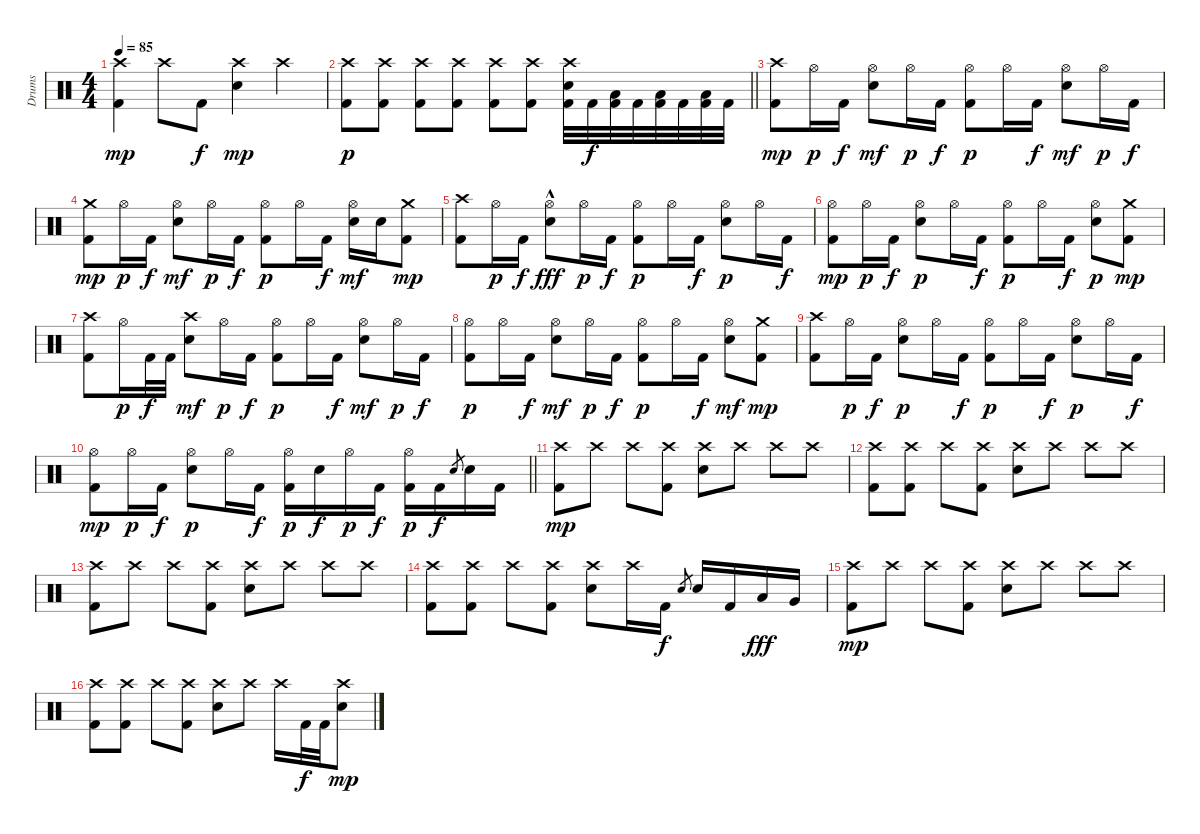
\track ("Drums" "Drums") {instrument percussion}
\staff {score}
\articulation defaults
\ts (4 4)
\tempo 85
\clef neutral
\ks c
("Crash high (hit)" "Kick (hit) 2").4{dy mp} "Crash high (hit)".8 "Kick (hit) 2".8{dy f} ("Crash high (hit)" "Electric Snare (hit)").4{dy mp} "Crash high (hit)".4 |
\barLineRight lightlight
("Crash high (hit)" "Kick (hit) 2").8{dy p} ("Crash high (hit)" "Kick (hit) 2").8 ("Crash high (hit)" "Kick (hit) 2").8 ("Crash high (hit)" "Kick (hit) 2").8 ("Crash high (hit)" "Kick (hit) 2").8 ("Crash high (hit)" "Kick (hit) 2").8 ("Crash high (hit)" "Electric Snare (hit)" "Kick (hit) 2").32 "Kick (hit) 2".32{dy f} ("Low Tom (hit)" "Kick (hit) 2").32 "Kick (hit) 2".32 ("Low Tom (hit)" "Kick (hit) 2").32 "Kick (hit) 2".32 ("Low Tom (hit)" "Kick (hit) 2").32 "Kick (hit) 2".32 |
("Crash high (hit)" "Kick (hit) 2").8{dy mp} "Hi-Hat (open)".16{dy p} "Kick (hit) 2".16{dy f} ("Hi-Hat (open)" "Electric Snare (hit)").8{dy mf} "Hi-Hat (open)".16{dy p} "Kick (hit) 2".16{dy f} ("Hi-Hat (open)" "Kick (hit) 2").8{dy p} "Hi-Hat (open)".16 "Kick (hit) 2".16{dy f} ("Hi-Hat (open)" "Electric Snare (hit)").8{dy mf} "Hi-Hat (open)".16{dy p} "Kick (hit) 2".16{dy f} |
("Crash medium (hit)" "Kick (hit) 2").8{dy mp} "Hi-Hat (open)".16{dy p} "Kick (hit) 2".16{dy f} ("Hi-Hat (open)" "Electric Snare (hit)").8{dy mf} "Hi-Hat (open)".16{dy p} "Kick (hit) 2".16{dy f} ("Hi-Hat (open)" "Kick (hit) 2").8{dy p} "Hi-Hat (open)".16 "Kick (hit) 2".16{dy f} ("Hi-Hat (open)" "Electric Snare (hit)").16{dy mf} "Electric Snare (hit)".16 ("Crash medium (hit)" "Kick (hit) 2").8{dy mp} |
("Crash high (hit)" "Kick (hit) 2").8 "Hi-Hat (open)".16{dy p} "Kick (hit) 2".16{dy f} ("Hi-Hat (open)" "Electric Snare (hit)"{hac}).8{dy fff} "Hi-Hat (open)".16{dy p} "Kick (hit) 2".16{dy f} ("Hi-Hat (open)" "Kick (hit) 2").8{dy p} "Hi-Hat (open)".16 "Kick (hit) 2".16{dy f} ("Hi-Hat (open)" "Electric Snare (hit)").8{dy p} "Hi-Hat (open)".16 "Kick (hit) 2".16{dy f} |
("Hi-Hat (open)" "Kick (hit) 2").8{dy mp} "Hi-Hat (open)".16{dy p} "Kick (hit) 2".16{dy f} ("Hi-Hat (open)" "Electric Snare (hit)").8{dy p} "Hi-Hat (open)".16 "Kick (hit) 2".16{dy f} ("Hi-Hat (open)" "Kick (hit) 2").8{dy p} "Hi-Hat (open)".16 "Kick (hit) 2".16{dy f} ("Hi-Hat (open)" "Electric Snare (hit)").8{dy p} ("Crash medium (hit)" "Kick (hit) 2").8{dy mp} |
("Crash high (hit)" "Kick (hit) 2").8 "Hi-Hat (open)".16{dy p} "Kick (hit) 2".32{dy f} "Kick (hit) 2".32 ("Crash high (hit)" "Electric Snare (hit)").8{dy mf} "Hi-Hat (open)".16{dy p} "Kick (hit) 2".16{dy f} ("Hi-Hat (open)" "Kick (hit) 2").8{dy p} "Hi-Hat (open)".16 "Kick (hit) 2".16{dy f} ("Hi-Hat (open)" "Electric Snare (hit)").8{dy mf} "Hi-Hat (open)".16{dy p} "Kick (hit) 2".16{dy f} |
("Hi-Hat (open)" "Kick (hit) 2").8{dy p} "Hi-Hat (open)".16 "Kick (hit) 2".16{dy f} ("Hi-Hat (open)" "Electric Snare (hit)").8{dy mf} "Hi-Hat (open)".16{dy p} "Kick (hit) 2".16{dy f} ("Hi-Hat (open)" "Kick (hit) 2").8{dy p} "Hi-Hat (open)".16 "Kick (hit) 2".16{dy f} ("Hi-Hat (open)" "Electric Snare (hit)").8{dy mf} ("Crash medium (hit)" "Kick (hit) 2").8{dy mp} |
("Crash high (hit)" "Kick (hit) 2").8 "Hi-Hat (open)".16{dy p} "Kick (hit) 2".16{dy f} ("Hi-Hat (open)" "Electric Snare (hit)").8{dy p} "Hi-Hat (open)".16 "Kick (hit) 2".16{dy f} ("Hi-Hat (open)" "Kick (hit) 2").8{dy p} "Hi-Hat (open)".16 "Kick (hit) 2".16{dy f} ("Hi-Hat (open)" "Electric Snare (hit)").8{dy p} "Hi-Hat (open)".16 "Kick (hit) 2".16{dy f} |
\barLineRight lightlight
("Hi-Hat (open)" "Kick (hit) 2").8{dy mp} "Hi-Hat (open)".16{dy p} "Kick (hit) 2".16{dy f} ("Hi-Hat (open)" "Electric Snare (hit)").8{dy p} "Hi-Hat (open)".16 "Kick (hit) 2".16{dy f} ("Hi-Hat (open)" "Kick (hit) 2").16{dy p} "Electric Snare (hit)".16{dy f} "Hi-Hat (open)".16{dy p} "Kick (hit) 2".16{dy f} ("Hi-Hat (open)" "Kick (hit) 2").16{dy p} "Kick (hit) 2".16{dy f} "Electric Snare (hit)".8{gr} "Electric Snare (hit)".16 "Kick (hit) 2".16 |
("Crash high (hit)" "Kick (hit) 2").8{dy mp} "Crash high (hit)".8 "Crash high (hit)".8 ("Crash high (hit)" "Kick (hit) 2").8 ("Crash high (hit)" "Electric Snare (hit)").8 "Crash high (hit)".8 "Crash high (hit)".8 "Crash high (hit)".8 |
("Crash high (hit)" "Kick (hit) 2").8 ("Crash high (hit)" "Kick (hit) 2").8 "Crash high (hit)".8 ("Crash high (hit)" "Kick (hit) 2").8 ("Crash high (hit)" "Electric Snare (hit)").8 "Crash high (hit)".8 "Crash high (hit)".8 "Crash high (hit)".8 |
("Crash high (hit)" "Kick (hit) 2").8 "Crash high (hit)".8 "Crash high (hit)".8 ("Crash high (hit)" "Kick (hit) 2").8 ("Crash high (hit)" "Electric Snare (hit)").8 "Crash high (hit)".8 "Crash high (hit)".8 "Crash high (hit)".8 |
("Crash high (hit)" "Kick (hit) 2").8 ("Crash high (hit)" "Kick (hit) 2").8 "Crash high (hit)".8 ("Crash high (hit)" "Kick (hit) 2").8 ("Crash high (hit)" "Electric Snare (hit)").8 "Crash high (hit)".16 "Kick (hit) 2".16{dy f} "Electric Snare (hit)".8{gr} "Electric Snare (hit)".16 "Kick (hit) 2".16 "Low Tom (hit)".16{dy fff} "Very Low Tom (hit)".16 |
("Crash high (hit)" "Kick (hit) 2").8{dy mp} "Crash high (hit)".8 "Crash high (hit)".8 ("Crash high (hit)" "Kick (hit) 2").8 ("Crash high (hit)" "Electric Snare (hit)").8 "Crash high (hit)".8 "Crash high (hit)".8 "Crash high (hit)".8 |
("Crash high (hit)" "Kick (hit) 2").8 ("Crash high (hit)" "Kick (hit) 2").8 "Crash high (hit)".8 ("Crash high (hit)" "Kick (hit) 2").8 ("Crash high (hit)" "Electric Snare (hit)").8 "Crash high (hit)".8 "Crash high (hit)".16 "Kick (hit) 2".32{dy f} "Kick (hit) 2".32 ("Crash high (hit)" "Electric Snare (hit)").8{dy mp}
